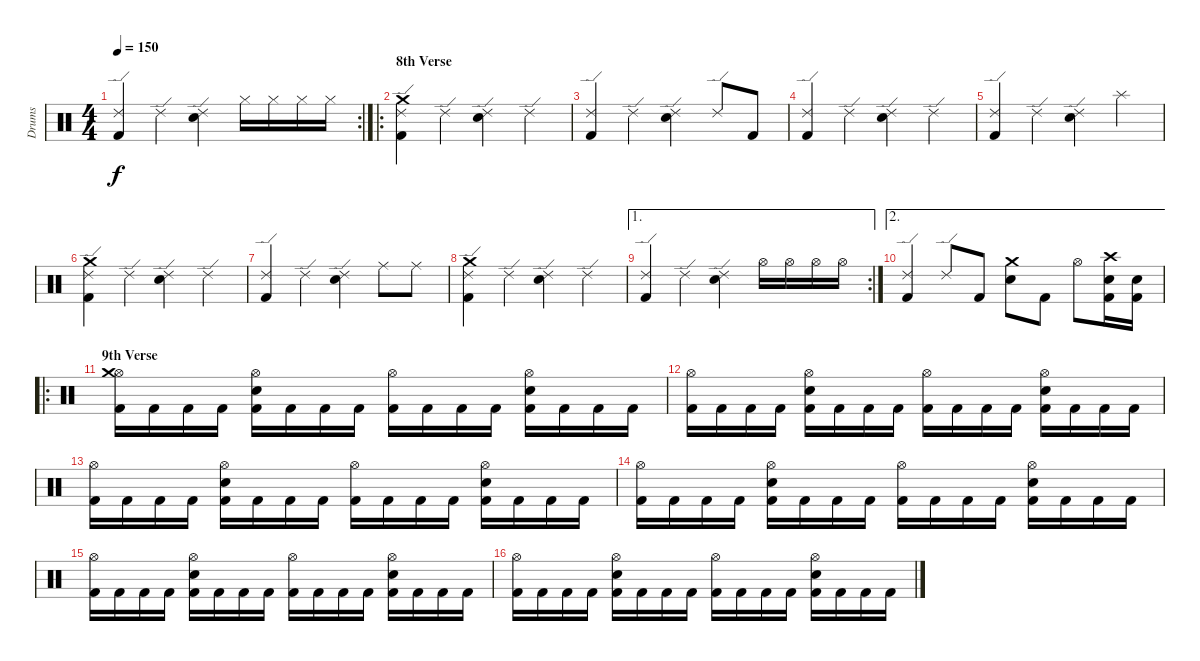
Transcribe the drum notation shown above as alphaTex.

\track ("Drums" "Drums") {instrument percussion}
\staff {score}
\articulation defaults
\rc 2
\ts (4 4)
\tempo 150
\clef neutral
\ks c
("Kick (hit) 2" "Ride (edge) 2").4{dy f} "Ride (edge) 2".4 ("Electric Snare (hit)" "Ride (edge) 2").4 "Hi-Hat (closed)".16 "Hi-Hat (closed)".16 "Hi-Hat (closed)".16 "Hi-Hat (closed)".16 |
\ro
\section ("" "8th Verse")
("Kick (hit) 2" "Ride (edge) 2" "Crash medium (hit)").4 "Ride (edge) 2".4 ("Electric Snare (hit)" "Ride (edge) 2").4 "Ride (edge) 2".4 |
("Kick (hit) 2" "Ride (edge) 2").4 "Ride (edge) 2".4 ("Electric Snare (hit)" "Ride (edge) 2").4 "Ride (edge) 2".8 "Kick (hit) 2".8 |
("Kick (hit) 2" "Ride (edge) 2").4 "Ride (edge) 2".4 ("Electric Snare (hit)" "Ride (edge) 2").4 "Ride (edge) 2".4 |
("Kick (hit) 2" "Ride (edge) 2").4 "Ride (edge) 2".4 ("Electric Snare (hit)" "Ride (edge) 2").4 "Splash (hit)".4 |
("Kick (hit) 2" "Ride (edge) 2" "Crash medium (hit)").4 "Ride (edge) 2".4 ("Electric Snare (hit)" "Ride (edge) 2").4 "Ride (edge) 2".4 |
("Kick (hit) 2" "Ride (edge) 2").4 "Ride (edge) 2".4 ("Electric Snare (hit)" "Ride (edge) 2").4 "Ride (middle)".8 "Ride (middle)".8 |
("Kick (hit) 2" "Ride (edge) 2" "Crash medium (hit)").4 "Ride (edge) 2".4 ("Electric Snare (hit)" "Ride (edge) 2").4 "Ride (edge) 2".4 |
\ae 1
\rc 2
("Kick (hit) 2" "Ride (edge) 2").4 "Ride (edge) 2".4 ("Electric Snare (hit)" "Ride (edge) 2").4 "Hi-Hat (open)".16 "Hi-Hat (open)".16 "Hi-Hat (open)".16 "Hi-Hat (open)".16 |
\ae 2
("Kick (hit) 2" "Ride (edge) 2").4 "Ride (edge) 2".8 "Kick (hit) 2".8 ("Electric Snare (hit)" "Crash medium (hit)").8 "Kick (hit) 2".8 "Hi-Hat (open)".8 ("Kick (hit) 2" "Electric Snare (hit)" "Crash high (hit)").16 ("Kick (hit) 2" "Electric Snare (hit)").16 |
\ro
\section ("" "9th Verse")
("Kick (hit) 2" "Hi-Hat (open)" "Crash medium (hit)").16 "Kick (hit) 2".16 "Kick (hit) 2".16 "Kick (hit) 2".16 ("Kick (hit) 2" "Electric Snare (hit)" "Hi-Hat (open)").16 "Kick (hit) 2".16 "Kick (hit) 2".16 "Kick (hit) 2".16 ("Kick (hit) 2" "Hi-Hat (open)").16 "Kick (hit) 2".16 "Kick (hit) 2".16 "Kick (hit) 2".16 ("Kick (hit) 2" "Electric Snare (hit)" "Hi-Hat (open)").16 "Kick (hit) 2".16 "Kick (hit) 2".16 "Kick (hit) 2".16 |
("Kick (hit) 2" "Hi-Hat (open)").16 "Kick (hit) 2".16 "Kick (hit) 2".16 "Kick (hit) 2".16 ("Kick (hit) 2" "Electric Snare (hit)" "Hi-Hat (open)").16 "Kick (hit) 2".16 "Kick (hit) 2".16 "Kick (hit) 2".16 ("Kick (hit) 2" "Hi-Hat (open)").16 "Kick (hit) 2".16 "Kick (hit) 2".16 "Kick (hit) 2".16 ("Kick (hit) 2" "Electric Snare (hit)" "Hi-Hat (open)").16 "Kick (hit) 2".16 "Kick (hit) 2".16 "Kick (hit) 2".16 |
("Kick (hit) 2" "Hi-Hat (open)").16 "Kick (hit) 2".16 "Kick (hit) 2".16 "Kick (hit) 2".16 ("Kick (hit) 2" "Electric Snare (hit)" "Hi-Hat (open)").16 "Kick (hit) 2".16 "Kick (hit) 2".16 "Kick (hit) 2".16 ("Kick (hit) 2" "Hi-Hat (open)").16 "Kick (hit) 2".16 "Kick (hit) 2".16 "Kick (hit) 2".16 ("Kick (hit) 2" "Electric Snare (hit)" "Hi-Hat (open)").16 "Kick (hit) 2".16 "Kick (hit) 2".16 "Kick (hit) 2".16 |
("Kick (hit) 2" "Hi-Hat (open)").16 "Kick (hit) 2".16 "Kick (hit) 2".16 "Kick (hit) 2".16 ("Kick (hit) 2" "Electric Snare (hit)" "Hi-Hat (open)").16 "Kick (hit) 2".16 "Kick (hit) 2".16 "Kick (hit) 2".16 ("Kick (hit) 2" "Hi-Hat (open)").16 "Kick (hit) 2".16 "Kick (hit) 2".16 "Kick (hit) 2".16 ("Kick (hit) 2" "Electric Snare (hit)" "Hi-Hat (open)").16 "Kick (hit) 2".16 "Kick (hit) 2".16 "Kick (hit) 2".16 |
("Kick (hit) 2" "Hi-Hat (open)").16 "Kick (hit) 2".16 "Kick (hit) 2".16 "Kick (hit) 2".16 ("Kick (hit) 2" "Electric Snare (hit)" "Hi-Hat (open)").16 "Kick (hit) 2".16 "Kick (hit) 2".16 "Kick (hit) 2".16 ("Kick (hit) 2" "Hi-Hat (open)").16 "Kick (hit) 2".16 "Kick (hit) 2".16 "Kick (hit) 2".16 ("Kick (hit) 2" "Electric Snare (hit)" "Hi-Hat (open)").16 "Kick (hit) 2".16 "Kick (hit) 2".16 "Kick (hit) 2".16 |
("Kick (hit) 2" "Hi-Hat (open)").16 "Kick (hit) 2".16 "Kick (hit) 2".16 "Kick (hit) 2".16 ("Kick (hit) 2" "Electric Snare (hit)" "Hi-Hat (open)").16 "Kick (hit) 2".16 "Kick (hit) 2".16 "Kick (hit) 2".16 ("Kick (hit) 2" "Hi-Hat (open)").16 "Kick (hit) 2".16 "Kick (hit) 2".16 "Kick (hit) 2".16 ("Kick (hit) 2" "Electric Snare (hit)" "Hi-Hat (open)").16 "Kick (hit) 2".16 "Kick (hit) 2".16 "Kick (hit) 2".16
